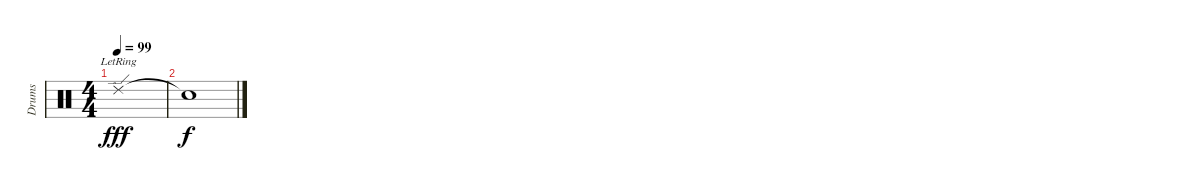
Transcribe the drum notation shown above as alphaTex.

\track ("Drums" "Drums") {instrument percussion}
\staff {score}
\articulation defaults
\ts (4 4)
\tempo 99
\clef neutral
\ks c "Ride (edge) 2"{lr}.1{dy fff volume 16}
|
"Snare (hit)"{t}.1{dy f}
